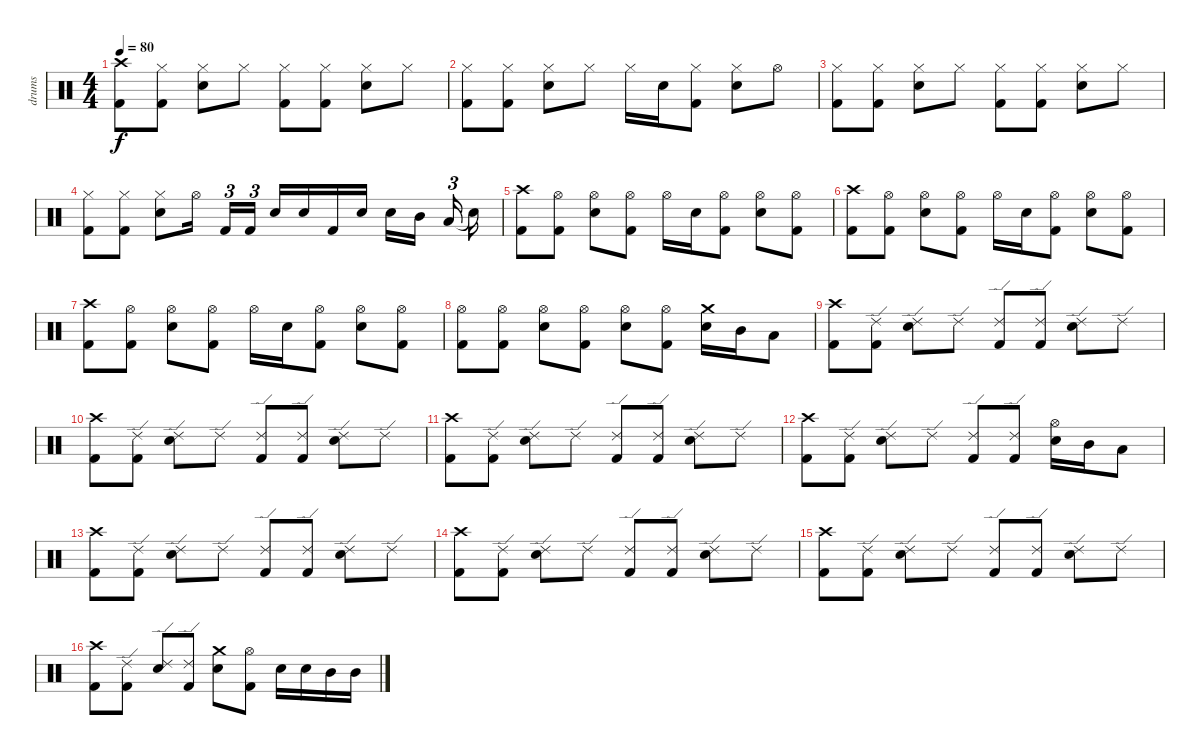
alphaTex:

\track ("drums" "drums") {instrument percussion}
\staff
\articulation defaults
\ts (4 4)
\tempo 80
\clef neutral
\ks c
("Crash high (hit)" "Kick (hit) 2").8{dy f} ("Hi-Hat (closed)" "Kick (hit) 2").8 ("Hi-Hat (closed)" "Electric Snare (hit)").8 "Hi-Hat (closed)".8 ("Hi-Hat (closed)" "Kick (hit) 2").8 ("Hi-Hat (closed)" "Kick (hit) 2").8 ("Hi-Hat (closed)" "Electric Snare (hit)").8 "Hi-Hat (closed)".8 |
("Hi-Hat (closed)" "Kick (hit) 2").8 ("Hi-Hat (closed)" "Kick (hit) 2").8 ("Hi-Hat (closed)" "Electric Snare (hit)").8 "Hi-Hat (closed)".8 "Hi-Hat (closed)".16 "Electric Snare (hit)".16 ("Hi-Hat (closed)" "Kick (hit) 2").8 ("Hi-Hat (closed)" "Electric Snare (hit)").8 "Hi-Hat (open)".8 |
("Hi-Hat (closed)" "Kick (hit) 2").8 ("Hi-Hat (closed)" "Kick (hit) 2").8 ("Hi-Hat (closed)" "Electric Snare (hit)").8 "Hi-Hat (closed)".8 ("Hi-Hat (closed)" "Kick (hit) 2").8 ("Hi-Hat (closed)" "Kick (hit) 2").8 ("Hi-Hat (closed)" "Electric Snare (hit)").8 "Hi-Hat (closed)".8 |
("Hi-Hat (closed)" "Kick (hit) 2").8 ("Hi-Hat (closed)" "Kick (hit) 2").8 ("Hi-Hat (closed)" "Electric Snare (hit)").8 "Hi-Hat (open)".16{beam splitsecondary} "Kick (hit) 2".16{tu (3 2)} "Kick (hit) 2".16{tu (3 2)} "Electric Snare (hit)".16 "Electric Snare (hit)".16 "Kick (hit) 2".16 "Electric Snare (hit)".16 "Electric Snare (hit)".16 "Mid Tom (hit)".16{beam splitsecondary} "Low Tom (hit)".16{tu (3 2)} "Snare (hit)"{t}.16 |
("Crash high (hit)" "Kick (hit) 2").8 ("Hi-Hat (open)" "Kick (hit) 2").8 ("Hi-Hat (open)" "Electric Snare (hit)").8 ("Hi-Hat (open)" "Kick (hit) 2").8 "Hi-Hat (open)".16 "Electric Snare (hit)".16 ("Hi-Hat (open)" "Kick (hit) 2").8 ("Hi-Hat (open)" "Electric Snare (hit)").8 ("Hi-Hat (open)" "Kick (hit) 2").8 |
("Crash high (hit)" "Kick (hit) 2").8 ("Hi-Hat (open)" "Kick (hit) 2").8 ("Hi-Hat (open)" "Electric Snare (hit)").8 ("Hi-Hat (open)" "Kick (hit) 2").8 "Hi-Hat (open)".16 "Electric Snare (hit)".16 ("Hi-Hat (open)" "Kick (hit) 2").8 ("Hi-Hat (open)" "Electric Snare (hit)").8 ("Hi-Hat (open)" "Kick (hit) 2").8 |
("Crash high (hit)" "Kick (hit) 2").8 ("Hi-Hat (open)" "Kick (hit) 2").8 ("Hi-Hat (open)" "Electric Snare (hit)").8 ("Hi-Hat (open)" "Kick (hit) 2").8 "Hi-Hat (open)".16 "Electric Snare (hit)".16 ("Hi-Hat (open)" "Kick (hit) 2").8 ("Hi-Hat (open)" "Electric Snare (hit)").8 ("Hi-Hat (open)" "Kick (hit) 2").8 |
("Hi-Hat (open)" "Kick (hit) 2").8 ("Hi-Hat (open)" "Kick (hit) 2").8 ("Hi-Hat (open)" "Electric Snare (hit)").8 ("Hi-Hat (open)" "Kick (hit) 2").8 ("Hi-Hat (open)" "Electric Snare (hit)").8 ("Hi-Hat (open)" "Kick (hit) 2").8 ("Crash medium (hit)" "Electric Snare (hit)").16 "Mid Tom (hit)".16 "Low Tom (hit)".8 |
("Crash high (hit)" "Kick (hit) 2").8 ("Ride (edge) 2" "Kick (hit) 2").8 ("Ride (edge) 2" "Electric Snare (hit)").8 "Ride (edge) 2".8 ("Ride (edge) 2" "Kick (hit) 2").8 ("Ride (edge) 2" "Kick (hit) 2").8 ("Ride (edge) 2" "Electric Snare (hit)").8 "Ride (edge) 2".8 |
("Crash high (hit)" "Kick (hit) 2").8 ("Ride (edge) 2" "Kick (hit) 2").8 ("Ride (edge) 2" "Electric Snare (hit)").8 "Ride (edge) 2".8 ("Ride (edge) 2" "Kick (hit) 2").8 ("Ride (edge) 2" "Kick (hit) 2").8 ("Ride (edge) 2" "Electric Snare (hit)").8 "Ride (edge) 2".8 |
("Crash high (hit)" "Kick (hit) 2").8 ("Ride (edge) 2" "Kick (hit) 2").8 ("Ride (edge) 2" "Electric Snare (hit)").8 "Ride (edge) 2".8 ("Ride (edge) 2" "Kick (hit) 2").8 ("Ride (edge) 2" "Kick (hit) 2").8 ("Ride (edge) 2" "Electric Snare (hit)").8 "Ride (edge) 2".8 |
("Crash high (hit)" "Kick (hit) 2").8 ("Ride (edge) 2" "Kick (hit) 2").8 ("Ride (edge) 2" "Electric Snare (hit)").8 "Ride (edge) 2".8 ("Ride (edge) 2" "Kick (hit) 2").8 ("Ride (edge) 2" "Kick (hit) 2").8 ("Hi-Hat (open)" "Electric Snare (hit)").16 "Mid Tom (hit)".16 "Low Tom (hit)".8 |
("Crash high (hit)" "Kick (hit) 2").8 ("Ride (edge) 2" "Kick (hit) 2").8 ("Ride (edge) 2" "Electric Snare (hit)").8 "Ride (edge) 2".8 ("Ride (edge) 2" "Kick (hit) 2").8 ("Ride (edge) 2" "Kick (hit) 2").8 ("Ride (edge) 2" "Electric Snare (hit)").8 "Ride (edge) 2".8 |
("Crash high (hit)" "Kick (hit) 2").8 ("Ride (edge) 2" "Kick (hit) 2").8 ("Ride (edge) 2" "Electric Snare (hit)").8 "Ride (edge) 2".8 ("Ride (edge) 2" "Kick (hit) 2").8 ("Ride (edge) 2" "Kick (hit) 2").8 ("Ride (edge) 2" "Electric Snare (hit)").8 "Ride (edge) 2".8 |
("Crash high (hit)" "Kick (hit) 2").8 ("Ride (edge) 2" "Kick (hit) 2").8 ("Ride (edge) 2" "Electric Snare (hit)").8 "Ride (edge) 2".8 ("Ride (edge) 2" "Kick (hit) 2").8 ("Ride (edge) 2" "Kick (hit) 2").8 ("Ride (edge) 2" "Electric Snare (hit)").8 "Ride (edge) 2".8 |
("Crash high (hit)" "Kick (hit) 2").8 ("Ride (edge) 2" "Kick (hit) 2").8 ("Ride (edge) 2" "Electric Snare (hit)").8 ("Ride (edge) 2" "Kick (hit) 2").8 ("Crash medium (hit)" "Electric Snare (hit)").8 ("Hi-Hat (open)" "Kick (hit) 2").8 "Electric Snare (hit)".16 "Electric Snare (hit)".16 "Mid Tom (hit)".16 "Mid Tom (hit)".16
